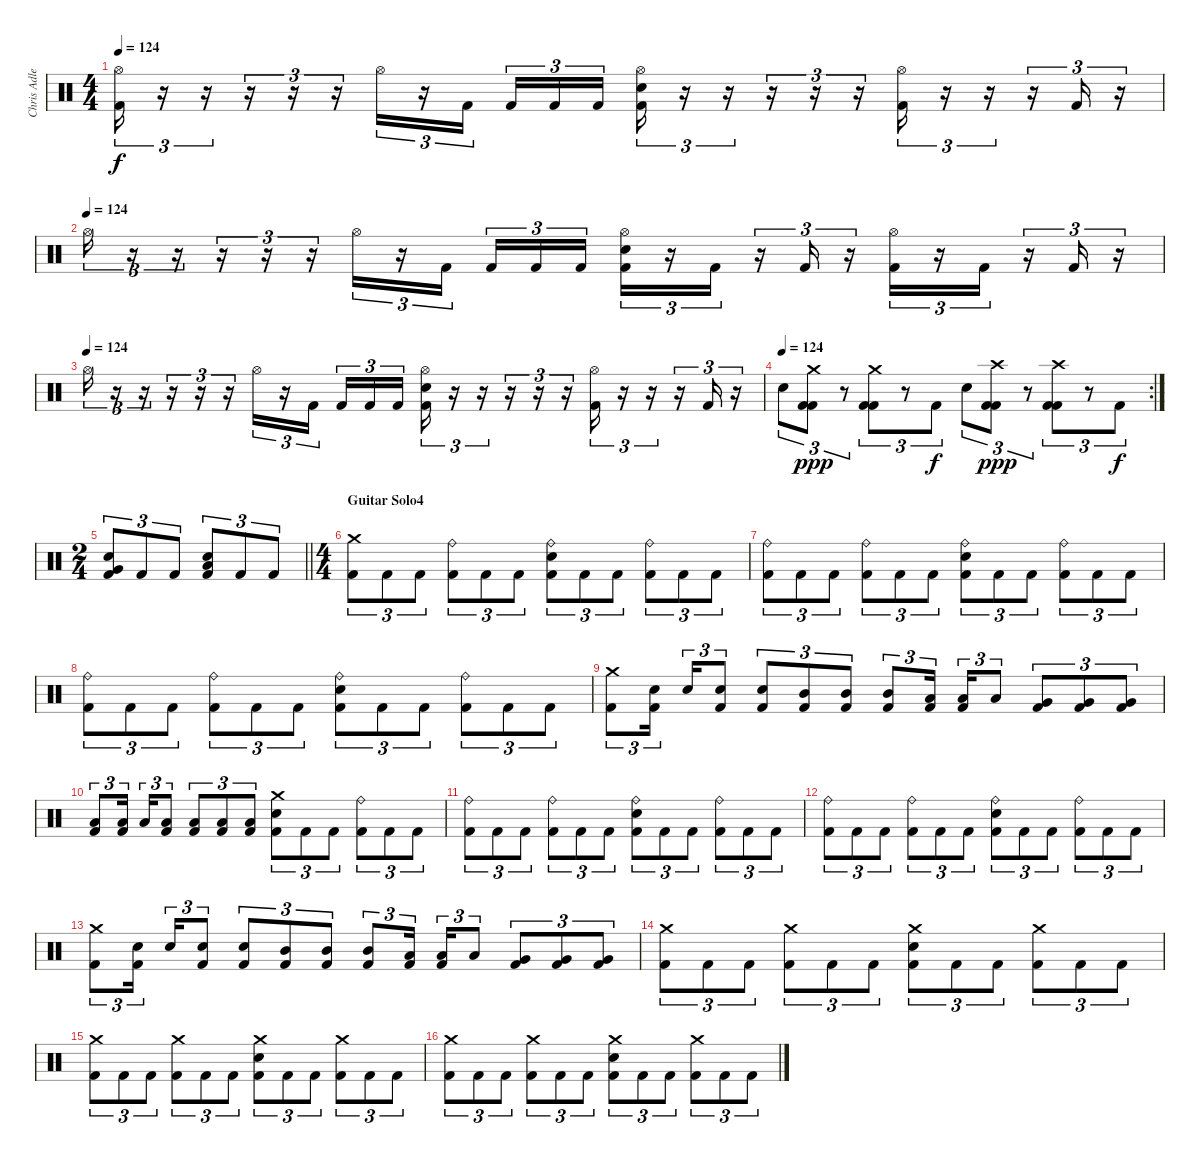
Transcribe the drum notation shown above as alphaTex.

\track ("Chris Adler" "Chris Adle") {instrument percussion}
\staff {score}
\articulation defaults
\ts (4 4)
\tempo 124
\clef neutral
\ks c
("Hi-Hat (open)" "Kick (hit) 2").16{tu (3 2) dy f} r.16{tu (3 2)} r.16{tu (3 2)} r.16{tu (3 2)} r.16{tu (3 2)} r.16{tu (3 2)} "Hi-Hat (open)".16{tu (3 2)} r.16{tu (3 2)} "Kick (hit) 2".16{tu (3 2) beam splitsecondary} "Kick (hit) 2".16{tu (3 2)} "Kick (hit) 2".16{tu (3 2)} "Kick (hit) 2".16{tu (3 2)} ("Hi-Hat (open)" "Snare (hit) 2" "Kick (hit) 2").16{tu (3 2)} r.16{tu (3 2)} r.16{tu (3 2)} r.16{tu (3 2)} r.16{tu (3 2)} r.16{tu (3 2)} ("Hi-Hat (open)" "Kick (hit) 2").16{tu (3 2)} r.16{tu (3 2)} r.16{tu (3 2)} r.16{tu (3 2)} "Kick (hit) 2".16{tu (3 2)} r.16{tu (3 2)} |
\tempo (124)
"Hi-Hat (open)".16{tu (3 2)} r.16{tu (3 2)} r.16{tu (3 2)} r.16{tu (3 2)} r.16{tu (3 2)} r.16{tu (3 2)} "Hi-Hat (open)".16{tu (3 2)} r.16{tu (3 2)} "Kick (hit) 2".16{tu (3 2) beam splitsecondary} "Kick (hit) 2".16{tu (3 2)} "Kick (hit) 2".16{tu (3 2)} "Kick (hit) 2".16{tu (3 2)} ("Hi-Hat (open)" "Electric Snare (hit)" "Kick (hit) 2").16{tu (3 2)} r.16{tu (3 2)} "Kick (hit) 2".16{tu (3 2)} r.16{tu (3 2)} "Kick (hit) 2".16{tu (3 2)} r.16{tu (3 2)} ("Hi-Hat (open)" "Kick (hit) 2").16{tu (3 2)} r.16{tu (3 2)} "Kick (hit) 2".16{tu (3 2)} r.16{tu (3 2)} "Kick (hit) 2".16{tu (3 2)} r.16{tu (3 2)} |
\tempo (124)
"Hi-Hat (open)".16{tu (3 2)} r.16{tu (3 2)} r.16{tu (3 2)} r.16{tu (3 2)} r.16{tu (3 2)} r.16{tu (3 2)} "Hi-Hat (open)".16{tu (3 2)} r.16{tu (3 2)} "Kick (hit) 2".16{tu (3 2) beam splitsecondary} "Kick (hit) 2".16{tu (3 2)} "Kick (hit) 2".16{tu (3 2)} "Kick (hit) 2".16{tu (3 2)} ("Hi-Hat (open)" "Electric Snare (hit)" "Kick (hit) 2").16{tu (3 2)} r.16{tu (3 2)} r.16{tu (3 2)} r.16{tu (3 2)} r.16{tu (3 2)} r.16{tu (3 2)} ("Hi-Hat (open)" "Kick (hit) 2").16{tu (3 2)} r.16{tu (3 2)} r.16{tu (3 2)} r.16{tu (3 2)} "Kick (hit) 2".16{tu (3 2)} r.16{tu (3 2)} |
\rc 2
\tempo (124)
"Electric Snare (hit)".8{tu (3 2)} ("Crash medium (hit)" "Kick (hit) 2" "Kick (hit) 2").8{tu (3 2) dy ppp} r.8{tu (3 2)} ("Crash medium (hit)" "Kick (hit) 2" "Kick (hit) 2").8{tu (3 2)} r.8{tu (3 2)} "Kick (hit) 2".8{tu (3 2) dy f} "Electric Snare (hit)".8{tu (3 2)} ("Crash high (hit)" "Kick (hit) 2" "Kick (hit) 2").8{tu (3 2) dy ppp} r.8{tu (3 2)} ("Crash high (hit)" "Kick (hit) 2" "Kick (hit) 2").8{tu (3 2)} r.8{tu (3 2)} "Kick (hit) 2".8{tu (3 2) dy f} |
\ts (2 4)
\barLineRight lightlight
("Electric Snare (hit)" "Very Low Tom (hit)" "Kick (hit) 2").8{tu (3 2)} "Kick (hit) 2".8{tu (3 2)} "Kick (hit) 2".8{tu (3 2)} ("Low Tom (hit)" "Electric Snare (hit)" "Kick (hit) 2").8{tu (3 2)} "Kick (hit) 2".8{tu (3 2)} "Kick (hit) 2".8{tu (3 2)} |
\ts (4 4)
\section ("" "Guitar Solo4")
("Crash medium (hit)" "Kick (hit) 2").8{tu (3 2)} "Kick (hit) 2".8{tu (3 2)} "Kick (hit) 2".8{tu (3 2)} ("Ride (bell)" "Kick (hit) 2").8{tu (3 2)} "Kick (hit) 2".8{tu (3 2)} "Kick (hit) 2".8{tu (3 2)} ("Ride (bell)" "Electric Snare (hit)" "Kick (hit) 2").8{tu (3 2)} "Kick (hit) 2".8{tu (3 2)} "Kick (hit) 2".8{tu (3 2)} ("Ride (bell)" "Kick (hit) 2").8{tu (3 2)} "Kick (hit) 2".8{tu (3 2)} "Kick (hit) 2".8{tu (3 2)} |
("Ride (bell)" "Kick (hit) 2").8{tu (3 2)} "Kick (hit) 2".8{tu (3 2)} "Kick (hit) 2".8{tu (3 2)} ("Ride (bell)" "Kick (hit) 2").8{tu (3 2)} "Kick (hit) 2".8{tu (3 2)} "Kick (hit) 2".8{tu (3 2)} ("Ride (bell)" "Electric Snare (hit)" "Kick (hit) 2").8{tu (3 2)} "Kick (hit) 2".8{tu (3 2)} "Kick (hit) 2".8{tu (3 2)} ("Ride (bell)" "Kick (hit) 2").8{tu (3 2)} "Kick (hit) 2".8{tu (3 2)} "Kick (hit) 2".8{tu (3 2)} |
("Ride (bell)" "Kick (hit) 2").8{tu (3 2)} "Kick (hit) 2".8{tu (3 2)} "Kick (hit) 2".8{tu (3 2)} ("Ride (bell)" "Kick (hit) 2").8{tu (3 2)} "Kick (hit) 2".8{tu (3 2)} "Kick (hit) 2".8{tu (3 2)} ("Ride (bell)" "Electric Snare (hit)" "Kick (hit) 2").8{tu (3 2)} "Kick (hit) 2".8{tu (3 2)} "Kick (hit) 2".8{tu (3 2)} ("Ride (bell)" "Kick (hit) 2").8{tu (3 2)} "Kick (hit) 2".8{tu (3 2)} "Kick (hit) 2".8{tu (3 2)} |
("Crash medium (hit)" "Kick (hit) 2").8{tu (3 2)} ("Electric Snare (hit)" "Kick (hit) 2").16{tu (3 2) beam splitsecondary} "Electric Snare (hit)".16{tu (3 2)} ("Electric Snare (hit)" "Kick (hit) 2").8{tu (3 2)} ("Electric Snare (hit)" "Kick (hit) 2").8{tu (3 2)} ("Mid Tom (hit)" "Kick (hit) 2").8{tu (3 2)} ("Mid Tom (hit)" "Kick (hit) 2").8{tu (3 2)} ("Mid Tom (hit)" "Kick (hit) 2").8{tu (3 2)} ("Low Tom (hit)" "Kick (hit) 2").16{tu (3 2) beam splitsecondary} ("Low Tom (hit)" "Kick (hit) 2").16{tu (3 2)} "Low Tom (hit)".8{tu (3 2)} ("Very Low Tom (hit)" "Kick (hit) 2").8{tu (3 2)} ("Very Low Tom (hit)" "Kick (hit) 2").8{tu (3 2)} ("Very Low Tom (hit)" "Kick (hit) 2").8{tu (3 2)} |
("Low Floor Tom (hit)" "Kick (hit) 2").8{tu (3 2)} ("Low Floor Tom (hit)" "Kick (hit) 2").16{tu (3 2) beam splitsecondary} "Low Floor Tom (hit)".16{tu (3 2)} ("Low Floor Tom (hit)" "Kick (hit) 2").8{tu (3 2)} ("Low Floor Tom (hit)" "Kick (hit) 2").8{tu (3 2)} ("Low Floor Tom (hit)" "Kick (hit) 2").8{tu (3 2)} ("Low Floor Tom (hit)" "Kick (hit) 2").8{tu (3 2)} ("Crash medium (hit)" "Electric Snare (hit)" "Kick (hit) 2").8{tu (3 2)} "Kick (hit) 2".8{tu (3 2)} "Kick (hit) 2".8{tu (3 2)} ("Ride (bell)" "Kick (hit) 2").8{tu (3 2)} "Kick (hit) 2".8{tu (3 2)} "Kick (hit) 2".8{tu (3 2)} |
("Ride (bell)" "Kick (hit) 2").8{tu (3 2)} "Kick (hit) 2".8{tu (3 2)} "Kick (hit) 2".8{tu (3 2)} ("Ride (bell)" "Kick (hit) 2").8{tu (3 2)} "Kick (hit) 2".8{tu (3 2)} "Kick (hit) 2".8{tu (3 2)} ("Ride (bell)" "Electric Snare (hit)" "Kick (hit) 2").8{tu (3 2)} "Kick (hit) 2".8{tu (3 2)} "Kick (hit) 2".8{tu (3 2)} ("Ride (bell)" "Kick (hit) 2").8{tu (3 2)} "Kick (hit) 2".8{tu (3 2)} "Kick (hit) 2".8{tu (3 2)} |
("Ride (bell)" "Kick (hit) 2").8{tu (3 2)} "Kick (hit) 2".8{tu (3 2)} "Kick (hit) 2".8{tu (3 2)} ("Ride (bell)" "Kick (hit) 2").8{tu (3 2)} "Kick (hit) 2".8{tu (3 2)} "Kick (hit) 2".8{tu (3 2)} ("Ride (bell)" "Electric Snare (hit)" "Kick (hit) 2").8{tu (3 2)} "Kick (hit) 2".8{tu (3 2)} "Kick (hit) 2".8{tu (3 2)} ("Ride (bell)" "Kick (hit) 2").8{tu (3 2)} "Kick (hit) 2".8{tu (3 2)} "Kick (hit) 2".8{tu (3 2)} |
("Crash medium (hit)" "Kick (hit) 2").8{tu (3 2)} ("Electric Snare (hit)" "Kick (hit) 2").16{tu (3 2) beam splitsecondary} "Electric Snare (hit)".16{tu (3 2)} ("Electric Snare (hit)" "Kick (hit) 2").8{tu (3 2)} ("Electric Snare (hit)" "Kick (hit) 2").8{tu (3 2)} ("Mid Tom (hit)" "Kick (hit) 2").8{tu (3 2)} ("Mid Tom (hit)" "Kick (hit) 2").8{tu (3 2)} ("Mid Tom (hit)" "Kick (hit) 2").8{tu (3 2)} ("Low Tom (hit)" "Kick (hit) 2").16{tu (3 2) beam splitsecondary} ("Low Tom (hit)" "Kick (hit) 2").16{tu (3 2)} "Low Tom (hit)".8{tu (3 2)} ("Very Low Tom (hit)" "Kick (hit) 2").8{tu (3 2)} ("Very Low Tom (hit)" "Kick (hit) 2").8{tu (3 2)} ("Very Low Tom (hit)" "Kick (hit) 2").8{tu (3 2)} |
("Crash medium (hit)" "Kick (hit) 2").8{tu (3 2)} "Kick (hit) 2".8{tu (3 2)} "Kick (hit) 2".8{tu (3 2)} ("Crash medium (hit)" "Kick (hit) 2").8{tu (3 2)} "Kick (hit) 2".8{tu (3 2)} "Kick (hit) 2".8{tu (3 2)} ("Crash medium (hit)" "Electric Snare (hit)" "Kick (hit) 2").8{tu (3 2)} "Kick (hit) 2".8{tu (3 2)} "Kick (hit) 2".8{tu (3 2)} ("Crash medium (hit)" "Kick (hit) 2").8{tu (3 2)} "Kick (hit) 2".8{tu (3 2)} "Kick (hit) 2".8{tu (3 2)} |
("Crash medium (hit)" "Kick (hit) 2").8{tu (3 2)} "Kick (hit) 2".8{tu (3 2)} "Kick (hit) 2".8{tu (3 2)} ("Crash medium (hit)" "Kick (hit) 2").8{tu (3 2)} "Kick (hit) 2".8{tu (3 2)} "Kick (hit) 2".8{tu (3 2)} ("Crash medium (hit)" "Electric Snare (hit)" "Kick (hit) 2").8{tu (3 2)} "Kick (hit) 2".8{tu (3 2)} "Kick (hit) 2".8{tu (3 2)} ("Crash medium (hit)" "Kick (hit) 2").8{tu (3 2)} "Kick (hit) 2".8{tu (3 2)} "Kick (hit) 2".8{tu (3 2)} |
("Crash medium (hit)" "Kick (hit) 2").8{tu (3 2)} "Kick (hit) 2".8{tu (3 2)} "Kick (hit) 2".8{tu (3 2)} ("Crash medium (hit)" "Kick (hit) 2").8{tu (3 2)} "Kick (hit) 2".8{tu (3 2)} "Kick (hit) 2".8{tu (3 2)} ("Crash medium (hit)" "Electric Snare (hit)" "Kick (hit) 2").8{tu (3 2)} "Kick (hit) 2".8{tu (3 2)} "Kick (hit) 2".8{tu (3 2)} ("Crash medium (hit)" "Kick (hit) 2").8{tu (3 2)} "Kick (hit) 2".8{tu (3 2)} "Kick (hit) 2".8{tu (3 2)}
